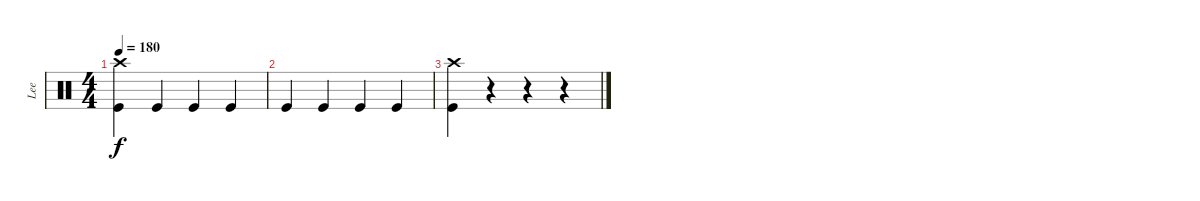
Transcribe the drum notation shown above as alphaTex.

\track ("Lee" "Lee") {instrument percussion}
\staff {score}
\articulation defaults
\ts (4 4)
\tempo 180
\clef neutral
\ks c
("Kick (hit)" "Crash high (hit)").4{dy f} "Kick (hit)".4 "Kick (hit)".4 "Kick (hit)".4 |
"Kick (hit)".4 "Kick (hit)".4 "Kick (hit)".4 "Kick (hit)".4 |
("Kick (hit)" "Crash high (hit)").4 r.4 r.4 r.4
